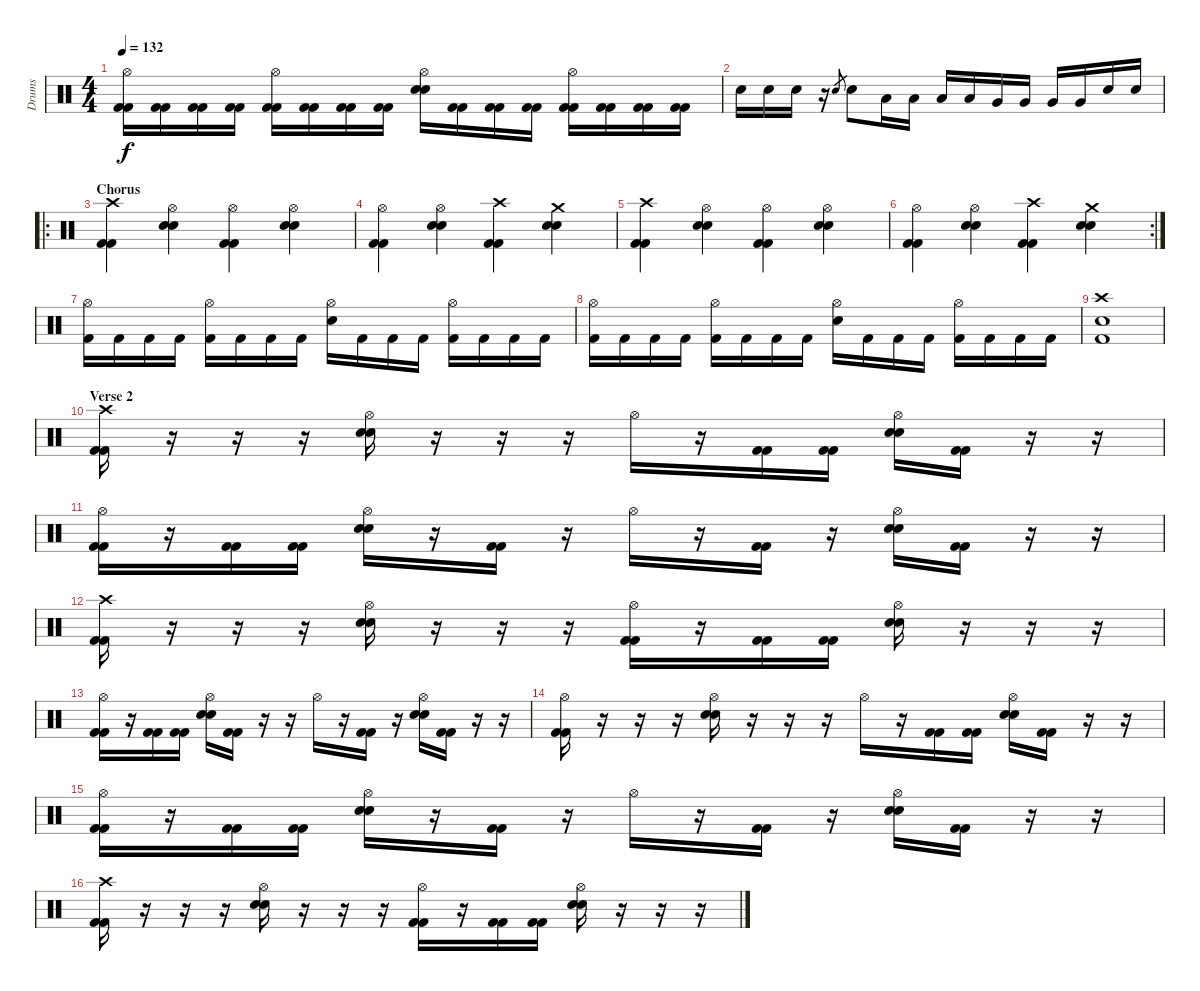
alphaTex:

\track ("Drums" "Drums") {instrument percussion}
\staff {score}
\articulation defaults
\ts (4 4)
\tempo 132
\clef neutral
\ks c
("Hi-Hat (open)" "Kick (hit) 2" "Kick (hit) 2").16{dy f} ("Kick (hit) 2" "Kick (hit) 2").16 ("Kick (hit) 2" "Kick (hit) 2").16 ("Kick (hit) 2" "Kick (hit) 2").16 ("Hi-Hat (open)" "Kick (hit) 2" "Kick (hit) 2").16 ("Kick (hit) 2" "Kick (hit) 2").16 ("Kick (hit) 2" "Kick (hit) 2").16 ("Kick (hit) 2" "Kick (hit) 2").16 ("Hi-Hat (open)" "Snare (hit) 2" "Snare (hit) 2").16 ("Kick (hit) 2" "Kick (hit) 2").16 ("Kick (hit) 2" "Kick (hit) 2").16 ("Kick (hit) 2" "Kick (hit) 2").16 ("Hi-Hat (open)" "Kick (hit) 2" "Kick (hit) 2").16 ("Kick (hit) 2" "Kick (hit) 2").16 ("Kick (hit) 2" "Kick (hit) 2").16 ("Kick (hit) 2" "Kick (hit) 2").16 |
"Electric Snare (hit)".16 "Electric Snare (hit)".16 "Electric Snare (hit)".16 r.16 "Electric Snare (hit)".8{gr} "Electric Snare (hit)".8 "Low Tom (hit)".16 "Low Tom (hit)".16 "Low Tom (hit)".16 "Low Tom (hit)".16 "Very Low Tom (hit)".16 "Very Low Tom (hit)".16 "Very Low Tom (hit)".16 "Very Low Tom (hit)".16 "Snare (hit) 2".16 "Snare (hit) 2".16 |
\ro
\section ("" "Chorus")
("Crash high (hit)" "Kick (hit) 2" "Kick (hit) 2").4 ("Hi-Hat (open)" "Snare (hit) 2" "Snare (hit) 2").4 ("Hi-Hat (open)" "Kick (hit) 2" "Kick (hit) 2").4 ("Hi-Hat (open)" "Snare (hit) 2" "Snare (hit) 2").4 |
("Hi-Hat (open)" "Kick (hit) 2" "Kick (hit) 2").4 ("Hi-Hat (open)" "Snare (hit) 2" "Snare (hit) 2").4 ("Crash high (hit)" "Kick (hit) 2" "Kick (hit) 2").4 ("Crash medium (hit)" "Snare (hit) 2" "Snare (hit) 2").4 |
("Crash high (hit)" "Kick (hit) 2" "Kick (hit) 2").4 ("Hi-Hat (open)" "Snare (hit) 2" "Snare (hit) 2").4 ("Hi-Hat (open)" "Kick (hit) 2" "Kick (hit) 2").4 ("Hi-Hat (open)" "Snare (hit) 2" "Snare (hit) 2").4 |
\rc 2
("Hi-Hat (open)" "Kick (hit) 2" "Kick (hit) 2").4 ("Hi-Hat (open)" "Snare (hit) 2" "Snare (hit) 2").4 ("Crash high (hit)" "Kick (hit) 2" "Kick (hit) 2").4 ("Crash medium (hit)" "Snare (hit) 2" "Snare (hit) 2").4 |
("Hi-Hat (open)" "Kick (hit) 2").16 "Kick (hit) 2".16 "Kick (hit) 2".16 "Kick (hit) 2".16 ("Hi-Hat (open)" "Kick (hit) 2").16 "Kick (hit) 2".16 "Kick (hit) 2".16 "Kick (hit) 2".16 ("Hi-Hat (open)" "Snare (hit) 2").16 "Kick (hit) 2".16 "Kick (hit) 2".16 "Kick (hit) 2".16 ("Hi-Hat (open)" "Kick (hit) 2").16 "Kick (hit) 2".16 "Kick (hit) 2".16 "Kick (hit) 2".16 |
("Hi-Hat (open)" "Kick (hit) 2").16 "Kick (hit) 2".16 "Kick (hit) 2".16 "Kick (hit) 2".16 ("Hi-Hat (open)" "Kick (hit) 2").16 "Kick (hit) 2".16 "Kick (hit) 2".16 "Kick (hit) 2".16 ("Hi-Hat (open)" "Snare (hit) 2").16 "Kick (hit) 2".16 "Kick (hit) 2".16 "Kick (hit) 2".16 ("Hi-Hat (open)" "Kick (hit) 2").16 "Kick (hit) 2".16 "Kick (hit) 2".16 "Kick (hit) 2".16 |
("Crash high (hit)" "Snare (hit) 2" "Kick (hit) 2").1 |
\section ("" "Verse 2")
("Crash high (hit)" "Kick (hit) 2" "Kick (hit) 2").16 r.16 r.16 r.16 ("Hi-Hat (open)" "Snare (hit) 2" "Snare (hit) 2").16 r.16 r.16 r.16 "Hi-Hat (open)".16 r.16 ("Kick (hit) 2" "Kick (hit) 2").16 ("Kick (hit) 2" "Kick (hit) 2").16 ("Hi-Hat (open)" "Snare (hit) 2" "Snare (hit) 2").16 ("Kick (hit) 2" "Kick (hit) 2").16 r.16 r.16 |
("Hi-Hat (open)" "Kick (hit) 2" "Kick (hit) 2").16 r.16 ("Kick (hit) 2" "Kick (hit) 2").16 ("Kick (hit) 2" "Kick (hit) 2").16 ("Hi-Hat (open)" "Snare (hit) 2" "Snare (hit) 2").16 r.16 ("Kick (hit) 2" "Kick (hit) 2").16 r.16 "Hi-Hat (open)".16 r.16 ("Kick (hit) 2" "Kick (hit) 2").16 r.16 ("Hi-Hat (open)" "Snare (hit) 2" "Snare (hit) 2").16 ("Kick (hit) 2" "Kick (hit) 2").16 r.16 r.16 |
("Crash high (hit)" "Kick (hit) 2" "Kick (hit) 2").16 r.16 r.16 r.16 ("Hi-Hat (open)" "Snare (hit) 2" "Snare (hit) 2").16 r.16 r.16 r.16 ("Hi-Hat (open)" "Kick (hit) 2" "Kick (hit) 2").16 r.16 ("Kick (hit) 2" "Kick (hit) 2").16 ("Kick (hit) 2" "Kick (hit) 2").16 ("Hi-Hat (open)" "Snare (hit) 2" "Snare (hit) 2").16 r.16 r.16 r.16 |
("Hi-Hat (open)" "Kick (hit) 2" "Kick (hit) 2").16 r.16 ("Kick (hit) 2" "Kick (hit) 2").16 ("Kick (hit) 2" "Kick (hit) 2").16 ("Hi-Hat (open)" "Snare (hit) 2" "Snare (hit) 2").16 ("Kick (hit) 2" "Kick (hit) 2").16 r.16 r.16 "Hi-Hat (open)".16 r.16 ("Kick (hit) 2" "Kick (hit) 2").16 r.16 ("Hi-Hat (open)" "Snare (hit) 2" "Snare (hit) 2").16 ("Kick (hit) 2" "Kick (hit) 2").16 r.16 r.16 |
("Hi-Hat (open)" "Kick (hit) 2" "Kick (hit) 2").16 r.16 r.16 r.16 ("Hi-Hat (open)" "Snare (hit) 2" "Snare (hit) 2").16 r.16 r.16 r.16 "Hi-Hat (open)".16 r.16 ("Kick (hit) 2" "Kick (hit) 2").16 ("Kick (hit) 2" "Kick (hit) 2").16 ("Hi-Hat (open)" "Snare (hit) 2" "Snare (hit) 2").16 ("Kick (hit) 2" "Kick (hit) 2").16 r.16 r.16 |
("Hi-Hat (open)" "Kick (hit) 2" "Kick (hit) 2").16 r.16 ("Kick (hit) 2" "Kick (hit) 2").16 ("Kick (hit) 2" "Kick (hit) 2").16 ("Hi-Hat (open)" "Snare (hit) 2" "Snare (hit) 2").16 r.16 ("Kick (hit) 2" "Kick (hit) 2").16 r.16 "Hi-Hat (open)".16 r.16 ("Kick (hit) 2" "Kick (hit) 2").16 r.16 ("Hi-Hat (open)" "Snare (hit) 2" "Snare (hit) 2").16 ("Kick (hit) 2" "Kick (hit) 2").16 r.16 r.16 |
("Crash high (hit)" "Kick (hit) 2" "Kick (hit) 2").16 r.16 r.16 r.16 ("Hi-Hat (open)" "Snare (hit) 2" "Snare (hit) 2").16 r.16 r.16 r.16 ("Hi-Hat (open)" "Kick (hit) 2" "Kick (hit) 2").16 r.16 ("Kick (hit) 2" "Kick (hit) 2").16 ("Kick (hit) 2" "Kick (hit) 2").16 ("Hi-Hat (open)" "Snare (hit) 2" "Snare (hit) 2").16 r.16 r.16 r.16
